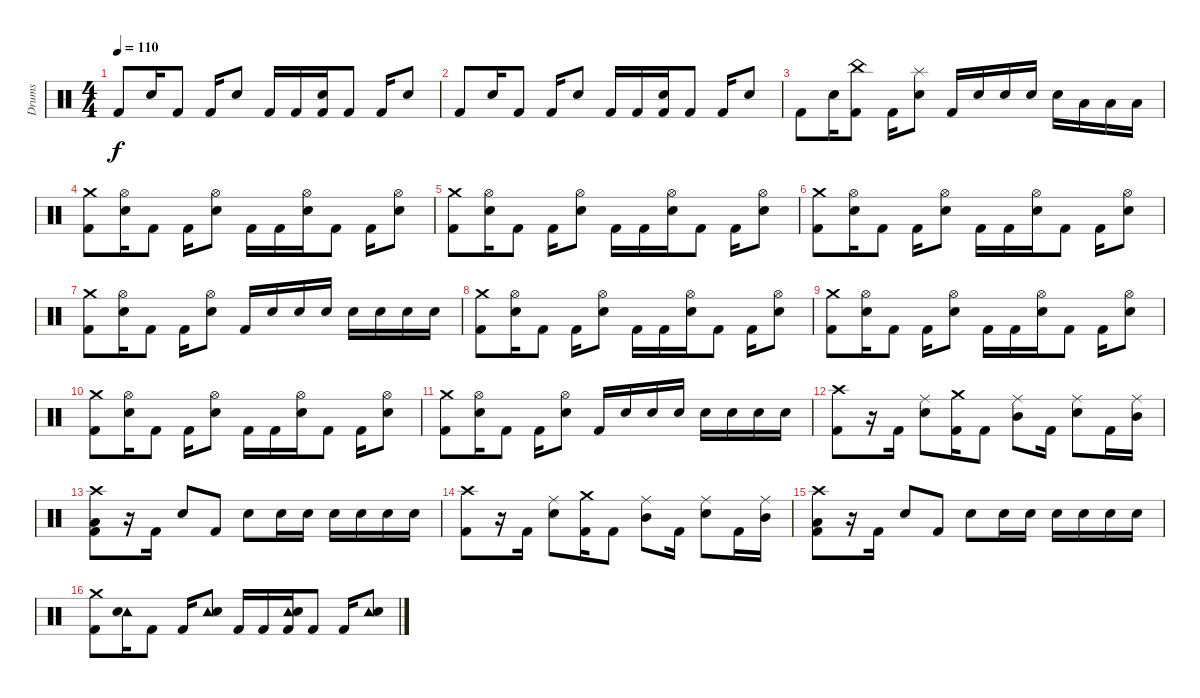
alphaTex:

\track ("Drums" "Drums") {instrument percussion}
\staff {score}
\articulation defaults
\ts (4 4)
\tempo 110
\clef neutral
\ks c "Kick (hit) 2".8{dy f} "Electric Snare (hit)".16 "Kick (hit) 2".8 "Kick (hit) 2".16 "Electric Snare (hit)".8 "Kick (hit) 2".16 "Kick (hit) 2".16
("Electric Snare (hit)" "Kick (hit) 2").16 "Kick (hit) 2".8 "Kick (hit) 2".16 "Electric Snare (hit)".8 |
"Kick (hit) 2".8 "Electric Snare (hit)".16 "Kick (hit) 2".8 "Kick (hit) 2".16 "Electric Snare (hit)".8 "Kick (hit) 2".16 "Kick (hit) 2".16 ("Electric Snare (hit)" "Kick (hit) 2").16 "Kick (hit) 2".8 "Kick (hit) 2".16 "Electric Snare (hit)".8 |
"Kick (hit) 2".8 "Electric Snare (hit)".16 ("China (hit)" "Kick (hit) 2").8 "Kick (hit) 2".16 ("Splash (hit)" "Electric Snare (hit)").8 "Kick (hit) 2".16 "Electric Snare (hit)".16 "Electric Snare (hit)".16 "Electric Snare (hit)".16 "Electric Snare (hit)".16 "Low Tom (hit)".16 "Low Tom (hit)".16 "Low Floor Tom (hit)".16 |
("Crash medium (hit)" "Kick (hit) 2").8 ("Hi-Hat (open)" "Electric Snare (hit)").16 "Kick (hit) 2".8 "Kick (hit) 2".16 ("Hi-Hat (open)" "Electric Snare (hit)").8 "Kick (hit) 2".16 "Kick (hit) 2".16 ("Hi-Hat (open)" "Electric Snare (hit)").16 "Kick (hit) 2".8 "Kick (hit) 2".16 ("Hi-Hat (open)" "Electric Snare (hit)").8 |
("Crash medium (hit)" "Kick (hit) 2").8 ("Hi-Hat (open)" "Electric Snare (hit)").16 "Kick (hit) 2".8 "Kick (hit) 2".16 ("Hi-Hat (open)" "Electric Snare (hit)").8 "Kick (hit) 2".16 "Kick (hit) 2".16 ("Hi-Hat (open)" "Electric Snare (hit)").16 "Kick (hit) 2".8 "Kick (hit) 2".16 ("Hi-Hat (open)" "Electric Snare (hit)").8 |
("Crash medium (hit)" "Kick (hit) 2").8 ("Hi-Hat (open)" "Electric Snare (hit)").16 "Kick (hit) 2".8 "Kick (hit) 2".16 ("Hi-Hat (open)" "Electric Snare (hit)").8 "Kick (hit) 2".16 "Kick (hit) 2".16 ("Hi-Hat (open)" "Electric Snare (hit)").16 "Kick (hit) 2".8 "Kick (hit) 2".16 ("Hi-Hat (open)" "Electric Snare (hit)").8 |
("Crash medium (hit)" "Kick (hit) 2").8 ("Hi-Hat (open)" "Electric Snare (hit)").16 "Kick (hit) 2".8 "Kick (hit) 2".16 ("Hi-Hat (open)" "Electric Snare (hit)").8 "Kick (hit) 2".16 "Electric Snare (hit)".16 "Electric Snare (hit)".16 "Electric Snare (hit)".16 "Electric Snare (hit)".16 "Electric Snare (hit)".16 "Electric Snare (hit)".16 "Electric Snare (hit)".16 |
("Crash medium (hit)" "Kick (hit) 2").8 ("Hi-Hat (open)" "Electric Snare (hit)").16 "Kick (hit) 2".8 "Kick (hit) 2".16 ("Hi-Hat (open)" "Electric Snare (hit)").8 "Kick (hit) 2".16 "Kick (hit) 2".16 ("Hi-Hat (open)" "Electric Snare (hit)").16 "Kick (hit) 2".8 "Kick (hit) 2".16 ("Hi-Hat (open)" "Electric Snare (hit)").8 |
("Crash medium (hit)" "Kick (hit) 2").8 ("Hi-Hat (open)" "Electric Snare (hit)").16 "Kick (hit) 2".8 "Kick (hit) 2".16 ("Hi-Hat (open)" "Electric Snare (hit)").8 "Kick (hit) 2".16 "Kick (hit) 2".16 ("Hi-Hat (open)" "Electric Snare (hit)").16 "Kick (hit) 2".8 "Kick (hit) 2".16 ("Hi-Hat (open)" "Electric Snare (hit)").8 |
("Crash medium (hit)" "Kick (hit) 2").8 ("Hi-Hat (open)" "Electric Snare (hit)").16 "Kick (hit) 2".8 "Kick (hit) 2".16 ("Hi-Hat (open)" "Electric Snare (hit)").8 "Kick (hit) 2".16 "Kick (hit) 2".16 ("Hi-Hat (open)" "Electric Snare (hit)").16 "Kick (hit) 2".8 "Kick (hit) 2".16 ("Hi-Hat (open)" "Electric Snare (hit)").8 |
("Crash medium (hit)" "Kick (hit) 2").8 ("Hi-Hat (open)" "Electric Snare (hit)").16 "Kick (hit) 2".8 "Kick (hit) 2".16 ("Hi-Hat (open)" "Electric Snare (hit)").8 "Kick (hit) 2".16 "Electric Snare (hit)".16 "Electric Snare (hit)".16 "Electric Snare (hit)".16 "Electric Snare (hit)".16 "Electric Snare (hit)".16 "Electric Snare (hit)".16 "Electric Snare (hit)".16 |
("Crash high (hit)" "Kick (hit) 2").8{volume 16} r.16 "Kick (hit) 2".16 ("Ride (middle)" "Electric Snare (hit)").8 ("Crash medium (hit)" "Kick (hit) 2").16 "Kick (hit) 2".8 ("Ride (middle)" "Mid Tom (hit)").8 "Kick (hit) 2".16 ("Ride (middle)" "Electric Snare (hit)").8 "Kick (hit) 2".16 ("Ride (middle)" "Mid Tom (hit)").16 |
("Crash high (hit)" "Low Tom (hit)" "Kick (hit) 2").8 r.16 "Kick (hit) 2".16 "Electric Snare (hit)".8 "Kick (hit) 2".8 "Electric Snare (hit)".8 "Electric Snare (hit)".16 "Electric Snare (hit)".16 "Electric Snare (hit)".16 "Electric Snare (hit)".16 "Electric Snare (hit)".16 "Electric Snare (hit)".16 |
("Crash high (hit)" "Kick (hit) 2").8 r.16 "Kick (hit) 2".16 ("Ride (middle)" "Electric Snare (hit)").8 ("Crash medium (hit)" "Kick (hit) 2").16 "Kick (hit) 2".8 ("Ride (middle)" "Mid Tom (hit)").8 "Kick (hit) 2".16 ("Ride (middle)" "Electric Snare (hit)").8 "Kick (hit) 2".16 ("Ride (middle)" "Mid Tom (hit)").16 |
("Crash high (hit)" "Low Tom (hit)" "Kick (hit) 2").8 r.16 "Kick (hit) 2".16 "Electric Snare (hit)".8 "Kick (hit) 2".8 "Electric Snare (hit)".8 "Electric Snare (hit)".16 "Electric Snare (hit)".16 "Electric Snare (hit)".16 "Electric Snare (hit)".16 "Electric Snare (hit)".16 "Electric Snare (hit)".16 |
("Crash medium (hit)" "Kick (hit) 2").8 ("Tambourine (hit)" "Electric Snare (hit)").16 "Kick (hit) 2".8 "Kick (hit) 2".16 ("Tambourine (hit)" "Electric Snare (hit)").8 "Kick (hit) 2".16 "Kick (hit) 2".16 ("Tambourine (hit)" "Electric Snare (hit)" "Kick (hit) 2").16 "Kick (hit) 2".8 "Kick (hit) 2".16 ("Tambourine (hit)" "Electric Snare (hit)").8
